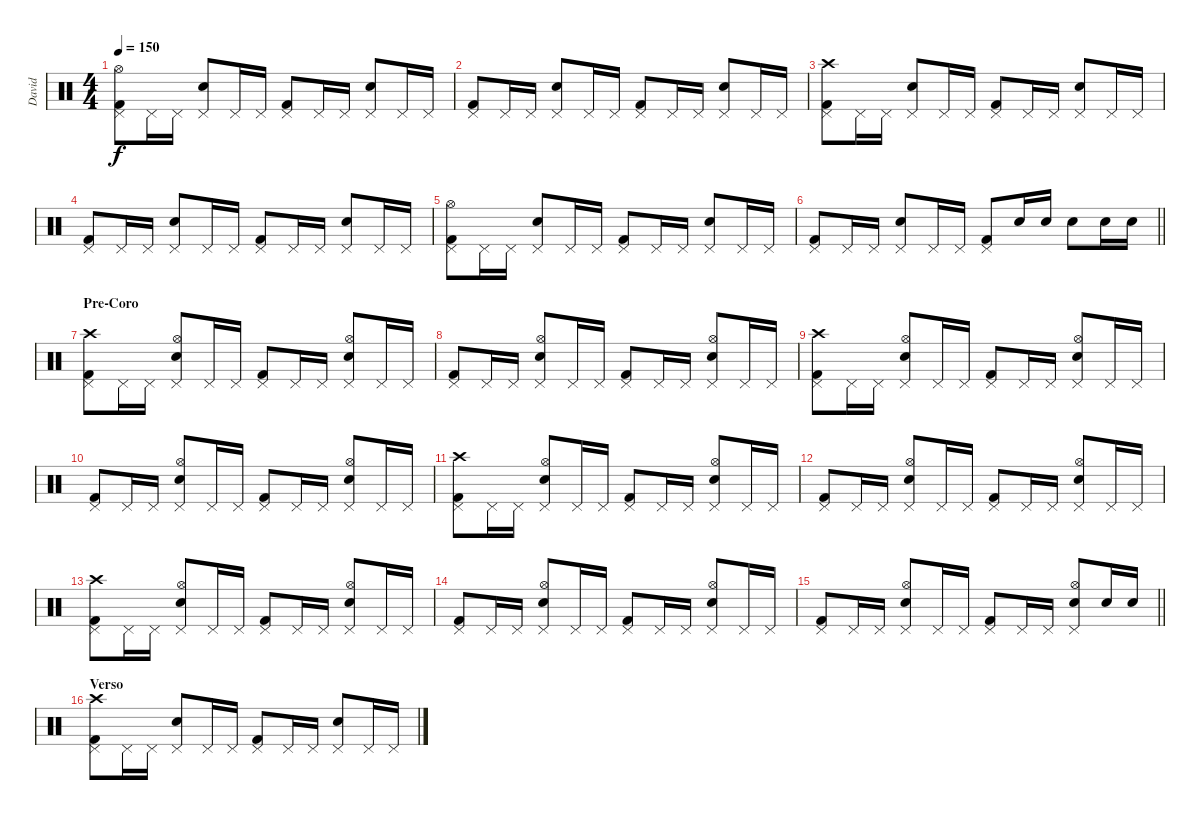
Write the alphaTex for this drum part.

\track ("David" "David") {instrument percussion}
\staff {score}
\articulation defaults
\ts (4 4)
\tempo 150
\clef neutral
\ks c
("Kick (hit) 2" "Pedal Hi-Hat (hit)" "Hi-Hat (open)").8{dy f} "Pedal Hi-Hat (hit)".16 "Pedal Hi-Hat (hit)".16 ("Snare (hit) 2" "Pedal Hi-Hat (hit)").8 "Pedal Hi-Hat (hit)".16 "Pedal Hi-Hat (hit)".16 ("Kick (hit) 2" "Pedal Hi-Hat (hit)").8 "Pedal Hi-Hat (hit)".16 "Pedal Hi-Hat (hit)".16 ("Snare (hit) 2" "Pedal Hi-Hat (hit)").8 "Pedal Hi-Hat (hit)".16 "Pedal Hi-Hat (hit)".16 |
("Kick (hit) 2" "Pedal Hi-Hat (hit)").8 "Pedal Hi-Hat (hit)".16 "Pedal Hi-Hat (hit)".16 ("Snare (hit) 2" "Pedal Hi-Hat (hit)").8 "Pedal Hi-Hat (hit)".16 "Pedal Hi-Hat (hit)".16 ("Kick (hit) 2" "Pedal Hi-Hat (hit)").8 "Pedal Hi-Hat (hit)".16 "Pedal Hi-Hat (hit)".16 ("Snare (hit) 2" "Pedal Hi-Hat (hit)").8 "Pedal Hi-Hat (hit)".16 "Pedal Hi-Hat (hit)".16 |
("Kick (hit) 2" "Pedal Hi-Hat (hit)" "Crash high (hit)").8 "Pedal Hi-Hat (hit)".16 "Pedal Hi-Hat (hit)".16 ("Snare (hit) 2" "Pedal Hi-Hat (hit)").8 "Pedal Hi-Hat (hit)".16 "Pedal Hi-Hat (hit)".16 ("Kick (hit) 2" "Pedal Hi-Hat (hit)").8 "Pedal Hi-Hat (hit)".16 "Pedal Hi-Hat (hit)".16 ("Snare (hit) 2" "Pedal Hi-Hat (hit)").8 "Pedal Hi-Hat (hit)".16 "Pedal Hi-Hat (hit)".16 |
("Kick (hit) 2" "Pedal Hi-Hat (hit)").8 "Pedal Hi-Hat (hit)".16 "Pedal Hi-Hat (hit)".16 ("Snare (hit) 2" "Pedal Hi-Hat (hit)").8 "Pedal Hi-Hat (hit)".16 "Pedal Hi-Hat (hit)".16 ("Kick (hit) 2" "Pedal Hi-Hat (hit)").8 "Pedal Hi-Hat (hit)".16 "Pedal Hi-Hat (hit)".16 ("Snare (hit) 2" "Pedal Hi-Hat (hit)").8 "Pedal Hi-Hat (hit)".16 "Pedal Hi-Hat (hit)".16 |
("Kick (hit) 2" "Pedal Hi-Hat (hit)" "Hi-Hat (open)").8 "Pedal Hi-Hat (hit)".16 "Pedal Hi-Hat (hit)".16 ("Snare (hit) 2" "Pedal Hi-Hat (hit)").8 "Pedal Hi-Hat (hit)".16 "Pedal Hi-Hat (hit)".16 ("Kick (hit) 2" "Pedal Hi-Hat (hit)").8 "Pedal Hi-Hat (hit)".16 "Pedal Hi-Hat (hit)".16 ("Snare (hit) 2" "Pedal Hi-Hat (hit)").8 "Pedal Hi-Hat (hit)".16 "Pedal Hi-Hat (hit)".16 |
\barLineRight lightlight
("Kick (hit) 2" "Pedal Hi-Hat (hit)").8 "Pedal Hi-Hat (hit)".16 "Pedal Hi-Hat (hit)".16 ("Snare (hit) 2" "Pedal Hi-Hat (hit)").8 "Pedal Hi-Hat (hit)".16 "Pedal Hi-Hat (hit)".16 ("Kick (hit) 2" "Pedal Hi-Hat (hit)").8 "Snare (hit) 2".16 "Snare (hit) 2".16 "Snare (hit) 2".8 "Snare (hit) 2".16 "Snare (hit) 2".16 |
\section ("" "Pre-Coro")
("Kick (hit) 2" "Pedal Hi-Hat (hit)" "Crash high (hit)").8 "Pedal Hi-Hat (hit)".16 "Pedal Hi-Hat (hit)".16 ("Snare (hit) 2" "Pedal Hi-Hat (hit)" "Hi-Hat (open)").8 "Pedal Hi-Hat (hit)".16 "Pedal Hi-Hat (hit)".16 ("Kick (hit) 2" "Pedal Hi-Hat (hit)").8 "Pedal Hi-Hat (hit)".16 "Pedal Hi-Hat (hit)".16 ("Snare (hit) 2" "Pedal Hi-Hat (hit)" "Hi-Hat (open)").8 "Pedal Hi-Hat (hit)".16 "Pedal Hi-Hat (hit)".16 |
("Kick (hit) 2" "Pedal Hi-Hat (hit)").8 "Pedal Hi-Hat (hit)".16 "Pedal Hi-Hat (hit)".16 ("Snare (hit) 2" "Pedal Hi-Hat (hit)" "Hi-Hat (open)").8 "Pedal Hi-Hat (hit)".16 "Pedal Hi-Hat (hit)".16 ("Kick (hit) 2" "Pedal Hi-Hat (hit)").8 "Pedal Hi-Hat (hit)".16 "Pedal Hi-Hat (hit)".16 ("Snare (hit) 2" "Pedal Hi-Hat (hit)" "Hi-Hat (open)").8 "Pedal Hi-Hat (hit)".16 "Pedal Hi-Hat (hit)".16 |
("Kick (hit) 2" "Pedal Hi-Hat (hit)" "Crash high (hit)").8 "Pedal Hi-Hat (hit)".16 "Pedal Hi-Hat (hit)".16 ("Snare (hit) 2" "Pedal Hi-Hat (hit)" "Hi-Hat (open)").8 "Pedal Hi-Hat (hit)".16 "Pedal Hi-Hat (hit)".16 ("Kick (hit) 2" "Pedal Hi-Hat (hit)").8 "Pedal Hi-Hat (hit)".16 "Pedal Hi-Hat (hit)".16 ("Snare (hit) 2" "Pedal Hi-Hat (hit)" "Hi-Hat (open)").8 "Pedal Hi-Hat (hit)".16 "Pedal Hi-Hat (hit)".16 |
("Kick (hit) 2" "Pedal Hi-Hat (hit)").8 "Pedal Hi-Hat (hit)".16 "Pedal Hi-Hat (hit)".16 ("Snare (hit) 2" "Pedal Hi-Hat (hit)" "Hi-Hat (open)").8 "Pedal Hi-Hat (hit)".16 "Pedal Hi-Hat (hit)".16 ("Kick (hit) 2" "Pedal Hi-Hat (hit)").8 "Pedal Hi-Hat (hit)".16 "Pedal Hi-Hat (hit)".16 ("Snare (hit) 2" "Pedal Hi-Hat (hit)" "Hi-Hat (open)").8 "Pedal Hi-Hat (hit)".16 "Pedal Hi-Hat (hit)".16 |
("Kick (hit) 2" "Pedal Hi-Hat (hit)" "Crash high (hit)").8 "Pedal Hi-Hat (hit)".16 "Pedal Hi-Hat (hit)".16 ("Snare (hit) 2" "Pedal Hi-Hat (hit)" "Hi-Hat (open)").8 "Pedal Hi-Hat (hit)".16 "Pedal Hi-Hat (hit)".16 ("Kick (hit) 2" "Pedal Hi-Hat (hit)").8 "Pedal Hi-Hat (hit)".16 "Pedal Hi-Hat (hit)".16 ("Snare (hit) 2" "Pedal Hi-Hat (hit)" "Hi-Hat (open)").8 "Pedal Hi-Hat (hit)".16 "Pedal Hi-Hat (hit)".16 |
("Kick (hit) 2" "Pedal Hi-Hat (hit)").8 "Pedal Hi-Hat (hit)".16 "Pedal Hi-Hat (hit)".16 ("Snare (hit) 2" "Pedal Hi-Hat (hit)" "Hi-Hat (open)").8 "Pedal Hi-Hat (hit)".16 "Pedal Hi-Hat (hit)".16 ("Kick (hit) 2" "Pedal Hi-Hat (hit)").8 "Pedal Hi-Hat (hit)".16 "Pedal Hi-Hat (hit)".16 ("Snare (hit) 2" "Pedal Hi-Hat (hit)" "Hi-Hat (open)").8 "Pedal Hi-Hat (hit)".16 "Pedal Hi-Hat (hit)".16 |
("Kick (hit) 2" "Pedal Hi-Hat (hit)" "Crash high (hit)").8 "Pedal Hi-Hat (hit)".16 "Pedal Hi-Hat (hit)".16 ("Snare (hit) 2" "Pedal Hi-Hat (hit)" "Hi-Hat (open)").8 "Pedal Hi-Hat (hit)".16 "Pedal Hi-Hat (hit)".16 ("Kick (hit) 2" "Pedal Hi-Hat (hit)").8 "Pedal Hi-Hat (hit)".16 "Pedal Hi-Hat (hit)".16 ("Snare (hit) 2" "Pedal Hi-Hat (hit)" "Hi-Hat (open)").8 "Pedal Hi-Hat (hit)".16 "Pedal Hi-Hat (hit)".16 |
("Kick (hit) 2" "Pedal Hi-Hat (hit)").8 "Pedal Hi-Hat (hit)".16 "Pedal Hi-Hat (hit)".16 ("Snare (hit) 2" "Pedal Hi-Hat (hit)" "Hi-Hat (open)").8 "Pedal Hi-Hat (hit)".16 "Pedal Hi-Hat (hit)".16 ("Kick (hit) 2" "Pedal Hi-Hat (hit)").8 "Pedal Hi-Hat (hit)".16 "Pedal Hi-Hat (hit)".16 ("Snare (hit) 2" "Pedal Hi-Hat (hit)" "Hi-Hat (open)").8 "Pedal Hi-Hat (hit)".16 "Pedal Hi-Hat (hit)".16 |
\barLineRight lightlight
("Kick (hit) 2" "Pedal Hi-Hat (hit)").8 "Pedal Hi-Hat (hit)".16 "Pedal Hi-Hat (hit)".16 ("Snare (hit) 2" "Pedal Hi-Hat (hit)" "Hi-Hat (open)").8 "Pedal Hi-Hat (hit)".16 "Pedal Hi-Hat (hit)".16 ("Kick (hit) 2" "Pedal Hi-Hat (hit)").8 "Pedal Hi-Hat (hit)".16 "Pedal Hi-Hat (hit)".16 ("Snare (hit) 2" "Pedal Hi-Hat (hit)" "Hi-Hat (open)").8 "Snare (hit) 2".16 "Snare (hit) 2".16 |
\section ("" "Verso")
("Kick (hit) 2" "Pedal Hi-Hat (hit)" "Crash high (hit)").8 "Pedal Hi-Hat (hit)".16 "Pedal Hi-Hat (hit)".16 ("Snare (hit) 2" "Pedal Hi-Hat (hit)").8 "Pedal Hi-Hat (hit)".16 "Pedal Hi-Hat (hit)".16 ("Kick (hit) 2" "Pedal Hi-Hat (hit)").8 "Pedal Hi-Hat (hit)".16 "Pedal Hi-Hat (hit)".16 ("Snare (hit) 2" "Pedal Hi-Hat (hit)").8 "Pedal Hi-Hat (hit)".16 "Pedal Hi-Hat (hit)".16
